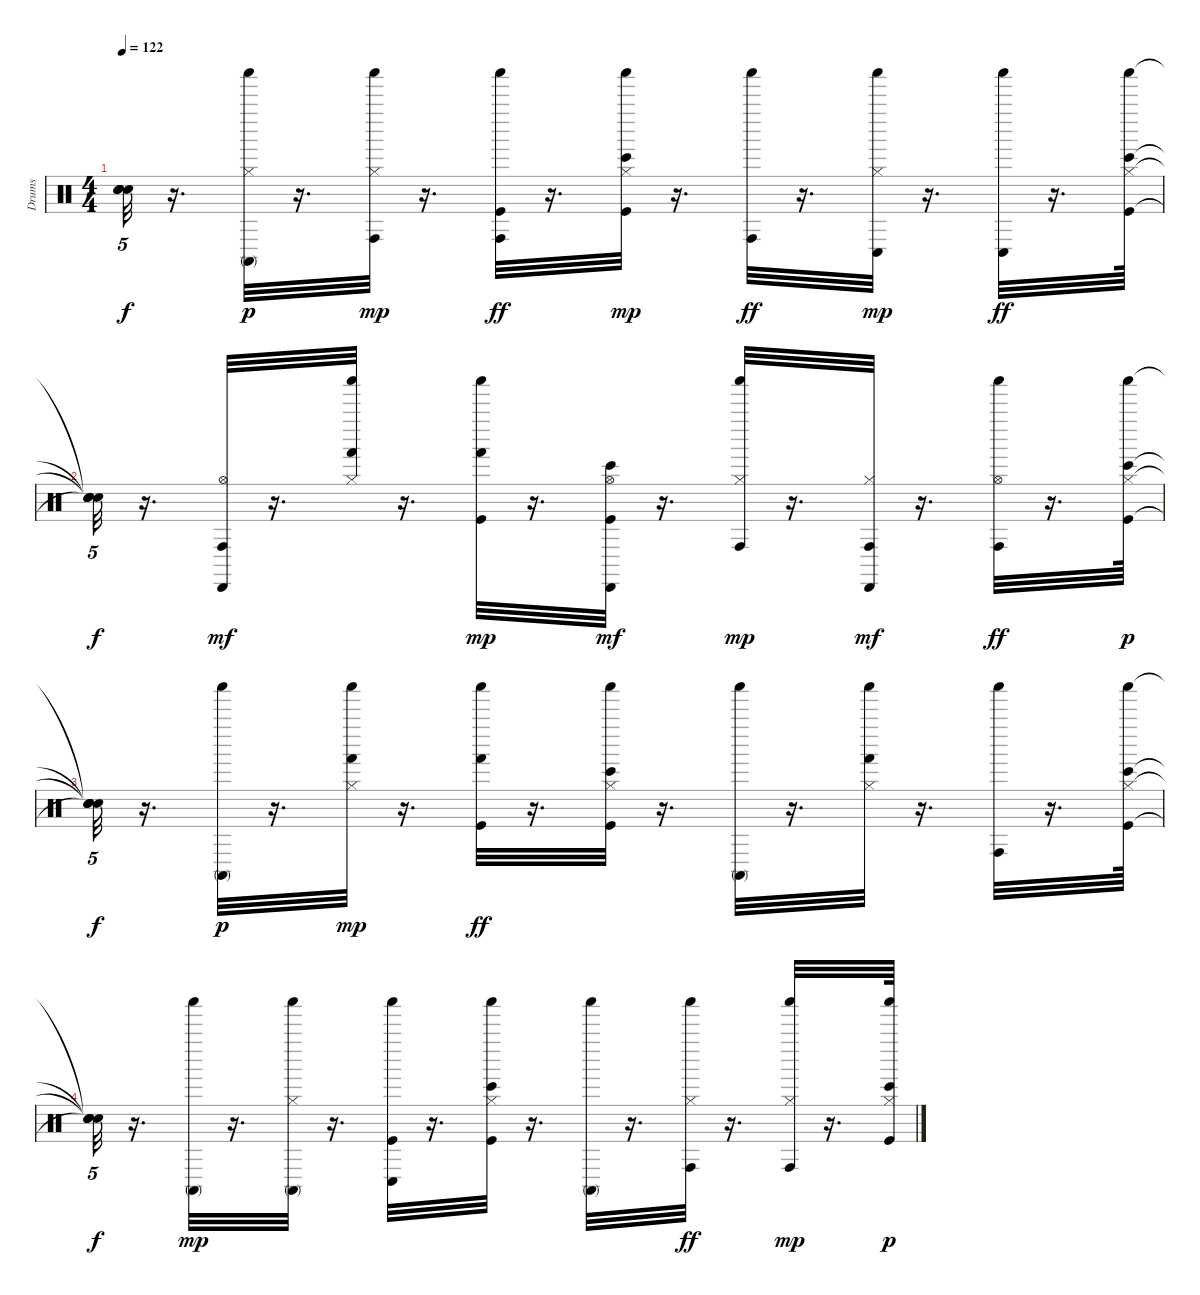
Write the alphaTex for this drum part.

\track ("Drums" "Drums") {instrument percussion}
\staff {score}
\articulation defaults
\ts (4 4)
\tempo 122
\clef neutral
\ks c
("Snare (hit)"{t} "Snare (hit)"{t} "Snare (hit)"{t} "Snare (hit)"{t}).32{tu (5 4) dy f} r.16{d} ("Hi-Hat (closed)" "Conga high (mute)" "Shaker (hit)").32{dy p} r.16{d} ("Shaker (hit)" "Hi-Hat (closed)" "Conga high (hit)").32{dy mp} r.16{d} ("Shaker (hit)" "Kick (hit)" "Conga high (hit)").32{dy ff} r.16{d} ("Shaker (hit)" "Kick (hit)" "Hi-Hat (closed)" "Bongo High (hit)").32{dy mp} r.16{d} ("Shaker (hit)" "Conga high (hit)").32{dy ff} r.16{d} ("Hi-Hat (closed)" "Conga low (hit)" "Shaker (hit)").32{dy mp} r.16{d} ("Shaker (hit)" "Conga low (hit)").32{dy ff} r.16{d} ("Shaker (hit)" "Kick (hit)" "Hi-Hat (closed)" "Bongo High (hit)").64 |
("Snare (hit)"{t} "Snare (hit)"{t} "Snare (hit)"{t} "Snare (hit)"{t}).32{tu (5 4) dy f} r.16{d} ("Hi-Hat (open)" "Conga high (hit)" "Cabasa (hit)").32{dy mf} r.16{d} ("Shaker (hit)" "Hi-Hat (closed)" "Hand (hit)").32 r.16{d} ("Shaker (hit)" "Kick (hit)" "Hand (hit)").32{dy mp} r.16{d} ("Bongo High (hit)" "Kick (hit)" "Hi-Hat (open)" "Cabasa (hit)").32{dy mf} r.16{d} ("Shaker (hit)" "Hi-Hat (closed)" "Conga high (hit)").32{dy mp} r.16{d} ("Hi-Hat (closed)" "Conga high (hit)" "Cabasa (hit)").32{dy mf} r.16{d} ("Shaker (hit)" "Hi-Hat (open)" "Conga high (hit)").32{dy ff} r.16{d} ("Kick (hit)" "Hi-Hat (closed)" "Bongo High (hit)" "Shaker (hit)").64{dy p} |
("Snare (hit)"{t} "Snare (hit)"{t} "Snare (hit)"{t} "Snare (hit)"{t}).32{tu (5 4) dy f} r.16{d} ("Conga high (mute)" "Shaker (hit)").32{dy p} r.16{d} ("Hi-Hat (closed)" "Hand (hit)" "Shaker (hit)").32{dy mp} r.16{d} ("Shaker (hit)" "Kick (hit)" "Hand (hit)").32{dy ff} r.16{d} ("Hi-Hat (closed)" "Shaker (hit)" "Kick (hit)" "Bongo High (hit)").32 r.16{d} ("Shaker (hit)" "Conga high (mute)").32 r.16{d} ("Shaker (hit)" "Hi-Hat (closed)" "Hand (hit)").32 r.16{d} ("Shaker (hit)" "Conga high (hit)").32 r.16{d} ("Shaker (hit)" "Kick (hit)" "Hi-Hat (closed)" "Bongo High (hit)").64 |
("Snare (hit)"{t} "Snare (hit)"{t} "Snare (hit)"{t} "Snare (hit)"{t}).32{tu (5 4) dy f} r.16{d} ("Conga high (mute)" "Shaker (hit)").32{dy mp} r.16{d} ("Conga high (mute)" "Shaker (hit)" "Hi-Hat (closed)").32 r.16{d} ("Conga low (hit)" "Shaker (hit)" "Kick (hit)").32 r.16{d} ("Bongo High (hit)" "Shaker (hit)" "Kick (hit)" "Hi-Hat (closed)").32 r.16{d} ("Shaker (hit)" "Conga high (mute)").32 r.16{d} ("Shaker (hit)" "Hi-Hat (closed)" "Conga high (hit)").32{dy ff} r.16{d} ("Conga high (hit)" "Shaker (hit)" "Hi-Hat (closed)").32{dy mp} r.16{d} ("Bongo High (hit)" "Kick (hit)" "Hi-Hat (closed)" "Shaker (hit)").64{dy p}
